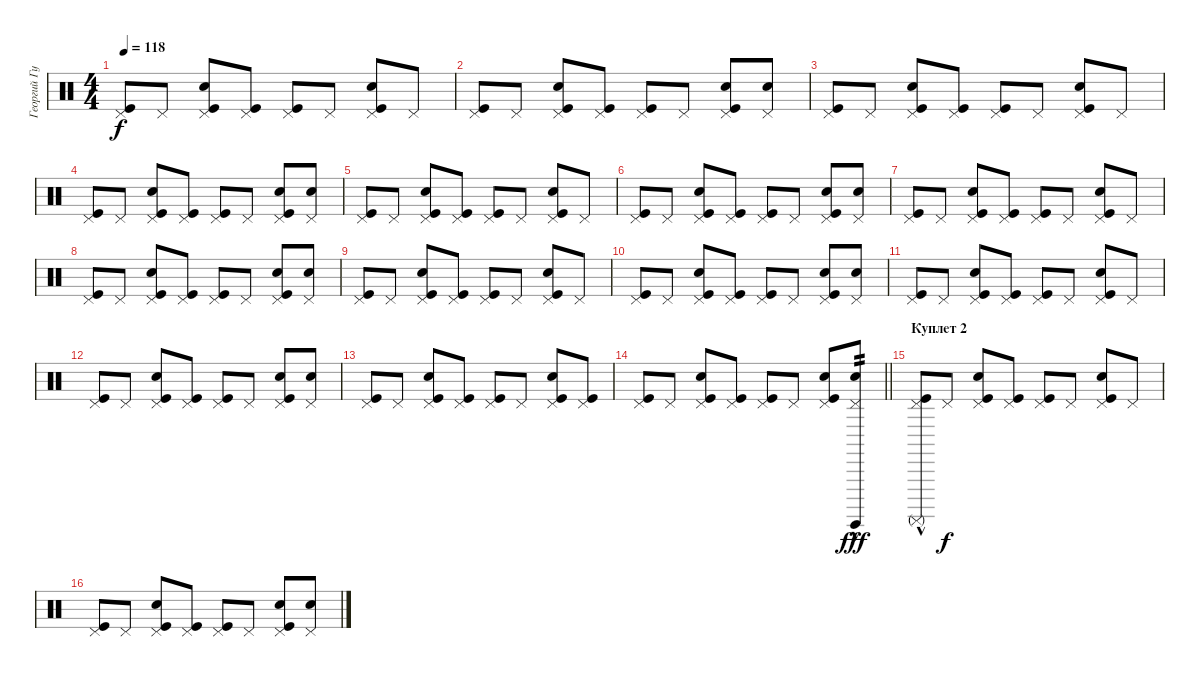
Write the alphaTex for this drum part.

\track ("Георгий Гурьянов" "Георгий Гу") {instrument percussion}
\staff {score}
\articulation defaults
\ts (4 4)
\tempo 118
\clef neutral
\ks c
("Pedal Hi-Hat (hit)" "Kick (hit)").8{dy f} "Pedal Hi-Hat (hit)".8 ("Pedal Hi-Hat (hit)" "Kick (hit)" "Snare (hit) 2").8 ("Pedal Hi-Hat (hit)" "Kick (hit)").8 ("Pedal Hi-Hat (hit)" "Kick (hit)").8 "Pedal Hi-Hat (hit)".8 ("Pedal Hi-Hat (hit)" "Kick (hit)" "Snare (hit) 2").8 "Pedal Hi-Hat (hit)".8 |
("Pedal Hi-Hat (hit)" "Kick (hit)").8 "Pedal Hi-Hat (hit)".8 ("Pedal Hi-Hat (hit)" "Kick (hit)" "Snare (hit) 2").8 ("Pedal Hi-Hat (hit)" "Kick (hit)").8 ("Pedal Hi-Hat (hit)" "Kick (hit)").8 "Pedal Hi-Hat (hit)".8 ("Pedal Hi-Hat (hit)" "Kick (hit)" "Snare (hit) 2").8 ("Pedal Hi-Hat (hit)" "Snare (hit) 2").8 |
("Pedal Hi-Hat (hit)" "Kick (hit)").8 "Pedal Hi-Hat (hit)".8 ("Pedal Hi-Hat (hit)" "Kick (hit)" "Snare (hit) 2").8 ("Pedal Hi-Hat (hit)" "Kick (hit)").8 ("Pedal Hi-Hat (hit)" "Kick (hit)").8 "Pedal Hi-Hat (hit)".8 ("Pedal Hi-Hat (hit)" "Kick (hit)" "Snare (hit) 2").8 "Pedal Hi-Hat (hit)".8 |
("Pedal Hi-Hat (hit)" "Kick (hit)").8 "Pedal Hi-Hat (hit)".8 ("Pedal Hi-Hat (hit)" "Kick (hit)" "Snare (hit) 2").8 ("Pedal Hi-Hat (hit)" "Kick (hit)").8 ("Pedal Hi-Hat (hit)" "Kick (hit)").8 "Pedal Hi-Hat (hit)".8 ("Pedal Hi-Hat (hit)" "Kick (hit)" "Snare (hit) 2").8 ("Pedal Hi-Hat (hit)" "Snare (hit) 2").8 |
("Pedal Hi-Hat (hit)" "Kick (hit)").8 "Pedal Hi-Hat (hit)".8 ("Pedal Hi-Hat (hit)" "Kick (hit)" "Snare (hit) 2").8 ("Pedal Hi-Hat (hit)" "Kick (hit)").8 ("Pedal Hi-Hat (hit)" "Kick (hit)").8 "Pedal Hi-Hat (hit)".8 ("Pedal Hi-Hat (hit)" "Kick (hit)" "Snare (hit) 2").8 "Pedal Hi-Hat (hit)".8 |
("Pedal Hi-Hat (hit)" "Kick (hit)").8 "Pedal Hi-Hat (hit)".8 ("Pedal Hi-Hat (hit)" "Kick (hit)" "Snare (hit) 2").8 ("Pedal Hi-Hat (hit)" "Kick (hit)").8 ("Pedal Hi-Hat (hit)" "Kick (hit)").8 "Pedal Hi-Hat (hit)".8 ("Pedal Hi-Hat (hit)" "Kick (hit)" "Snare (hit) 2").8 ("Pedal Hi-Hat (hit)" "Snare (hit) 2").8 |
("Pedal Hi-Hat (hit)" "Kick (hit)").8 "Pedal Hi-Hat (hit)".8 ("Pedal Hi-Hat (hit)" "Kick (hit)" "Snare (hit) 2").8 ("Pedal Hi-Hat (hit)" "Kick (hit)").8 ("Pedal Hi-Hat (hit)" "Kick (hit)").8 "Pedal Hi-Hat (hit)".8 ("Pedal Hi-Hat (hit)" "Kick (hit)" "Snare (hit) 2").8 "Pedal Hi-Hat (hit)".8 |
("Pedal Hi-Hat (hit)" "Kick (hit)").8 "Pedal Hi-Hat (hit)".8 ("Pedal Hi-Hat (hit)" "Kick (hit)" "Snare (hit) 2").8 ("Pedal Hi-Hat (hit)" "Kick (hit)").8 ("Pedal Hi-Hat (hit)" "Kick (hit)").8 "Pedal Hi-Hat (hit)".8 ("Pedal Hi-Hat (hit)" "Kick (hit)" "Snare (hit) 2").8 ("Pedal Hi-Hat (hit)" "Snare (hit) 2").8 |
("Pedal Hi-Hat (hit)" "Kick (hit)").8 "Pedal Hi-Hat (hit)".8 ("Pedal Hi-Hat (hit)" "Kick (hit)" "Snare (hit) 2").8 ("Pedal Hi-Hat (hit)" "Kick (hit)").8 ("Pedal Hi-Hat (hit)" "Kick (hit)").8 "Pedal Hi-Hat (hit)".8 ("Pedal Hi-Hat (hit)" "Kick (hit)" "Snare (hit) 2").8 "Pedal Hi-Hat (hit)".8 |
("Pedal Hi-Hat (hit)" "Kick (hit)").8 "Pedal Hi-Hat (hit)".8 ("Pedal Hi-Hat (hit)" "Kick (hit)" "Snare (hit) 2").8 ("Pedal Hi-Hat (hit)" "Kick (hit)").8 ("Pedal Hi-Hat (hit)" "Kick (hit)").8 "Pedal Hi-Hat (hit)".8 ("Pedal Hi-Hat (hit)" "Kick (hit)" "Snare (hit) 2").8 ("Pedal Hi-Hat (hit)" "Snare (hit) 2").8 |
("Pedal Hi-Hat (hit)" "Kick (hit)").8 "Pedal Hi-Hat (hit)".8 ("Pedal Hi-Hat (hit)" "Kick (hit)" "Snare (hit) 2").8 ("Pedal Hi-Hat (hit)" "Kick (hit)").8 ("Pedal Hi-Hat (hit)" "Kick (hit)").8 "Pedal Hi-Hat (hit)".8 ("Pedal Hi-Hat (hit)" "Kick (hit)" "Snare (hit) 2").8 "Pedal Hi-Hat (hit)".8 |
("Pedal Hi-Hat (hit)" "Kick (hit)").8 "Pedal Hi-Hat (hit)".8 ("Pedal Hi-Hat (hit)" "Kick (hit)" "Snare (hit) 2").8 ("Pedal Hi-Hat (hit)" "Kick (hit)").8 ("Pedal Hi-Hat (hit)" "Kick (hit)").8 "Pedal Hi-Hat (hit)".8 ("Pedal Hi-Hat (hit)" "Kick (hit)" "Snare (hit) 2").8 ("Pedal Hi-Hat (hit)" "Snare (hit) 2").8 |
("Pedal Hi-Hat (hit)" "Kick (hit)").8 "Pedal Hi-Hat (hit)".8 ("Pedal Hi-Hat (hit)" "Kick (hit)" "Snare (hit) 2").8 ("Pedal Hi-Hat (hit)" "Kick (hit)").8 ("Pedal Hi-Hat (hit)" "Kick (hit)").8 "Pedal Hi-Hat (hit)".8 ("Pedal Hi-Hat (hit)" "Kick (hit)" "Snare (hit) 2").8 ("Pedal Hi-Hat (hit)" "Kick (hit)").8 |
\barLineRight lightlight
("Pedal Hi-Hat (hit)" "Kick (hit)").8 "Pedal Hi-Hat (hit)".8 ("Pedal Hi-Hat (hit)" "Kick (hit)" "Snare (hit) 2").8 ("Pedal Hi-Hat (hit)" "Kick (hit)").8 ("Pedal Hi-Hat (hit)" "Kick (hit)").8 "Pedal Hi-Hat (hit)".8 ("Pedal Hi-Hat (hit)" "Kick (hit)" "Snare (hit) 2").8 ("Pedal Hi-Hat (hit)" "Snare (hit) 2" "Surdo (hit)"{hac}).8{tp 2 dy fff} |
\section ("" "Куплет 2")
("Pedal Hi-Hat (hit)" "Kick (hit)" "Surdo (mute)"{hac}).8 "Pedal Hi-Hat (hit)".8{dy f} ("Pedal Hi-Hat (hit)" "Kick (hit)" "Snare (hit) 2").8 ("Pedal Hi-Hat (hit)" "Kick (hit)").8 ("Pedal Hi-Hat (hit)" "Kick (hit)").8 "Pedal Hi-Hat (hit)".8 ("Pedal Hi-Hat (hit)" "Kick (hit)" "Snare (hit) 2").8 "Pedal Hi-Hat (hit)".8 |
("Pedal Hi-Hat (hit)" "Kick (hit)").8 "Pedal Hi-Hat (hit)".8 ("Pedal Hi-Hat (hit)" "Kick (hit)" "Snare (hit) 2").8 ("Pedal Hi-Hat (hit)" "Kick (hit)").8 ("Pedal Hi-Hat (hit)" "Kick (hit)").8 "Pedal Hi-Hat (hit)".8 ("Pedal Hi-Hat (hit)" "Kick (hit)" "Snare (hit) 2").8 ("Pedal Hi-Hat (hit)" "Snare (hit) 2").8
